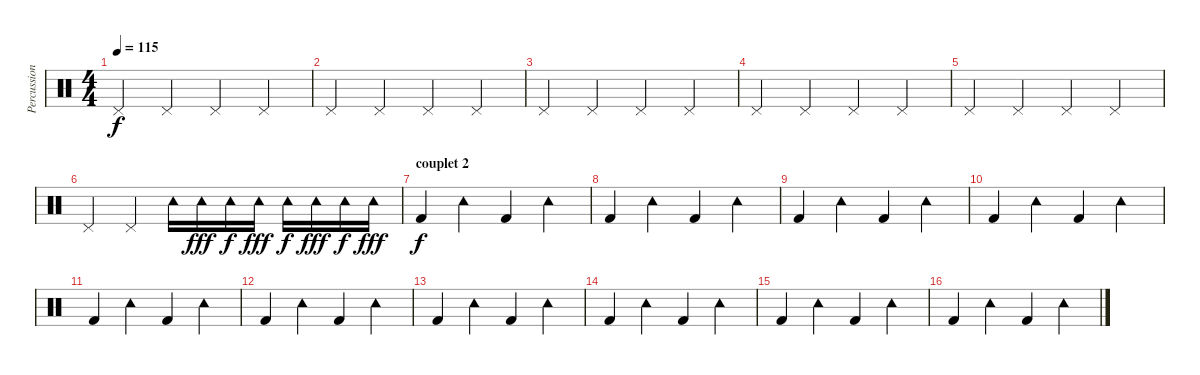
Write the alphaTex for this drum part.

\track ("Percussions" "Percussion") {instrument percussion}
\staff {score}
\articulation defaults
\ts (4 4)
\tempo 115
\clef neutral
\ks c "Pedal Hi-Hat (hit)".4{dy f} "Pedal Hi-Hat (hit)".4 "Pedal Hi-Hat (hit)".4 "Pedal Hi-Hat (hit)".4
|
"Pedal Hi-Hat (hit)".4 "Pedal Hi-Hat (hit)".4 "Pedal Hi-Hat (hit)".4 "Pedal Hi-Hat (hit)".4 |
"Pedal Hi-Hat (hit)".4 "Pedal Hi-Hat (hit)".4 "Pedal Hi-Hat (hit)".4 "Pedal Hi-Hat (hit)".4 |
"Pedal Hi-Hat (hit)".4 "Pedal Hi-Hat (hit)".4 "Pedal Hi-Hat (hit)".4 "Pedal Hi-Hat (hit)".4 |
"Pedal Hi-Hat (hit)".4 "Pedal Hi-Hat (hit)".4 "Pedal Hi-Hat (hit)".4 "Pedal Hi-Hat (hit)".4 |
"Pedal Hi-Hat (hit)".4 "Pedal Hi-Hat (hit)".4 "Tambourine (hit)".16 "Tambourine (hit)".16{dy fff} "Tambourine (hit)".16{dy f} "Tambourine (hit)".16{dy fff} "Tambourine (hit)".16{dy f} "Tambourine (hit)".16{dy fff} "Tambourine (hit)".16{dy f} "Tambourine (hit)".16{dy fff} |
\section ("" "couplet 2")
"Kick (hit) 2".4{dy f} "Tambourine (hit)".4 "Kick (hit) 2".4 "Tambourine (hit)".4 |
"Kick (hit) 2".4 "Tambourine (hit)".4 "Kick (hit) 2".4 "Tambourine (hit)".4 |
"Kick (hit) 2".4 "Tambourine (hit)".4 "Kick (hit) 2".4 "Tambourine (hit)".4 |
"Kick (hit) 2".4 "Tambourine (hit)".4 "Kick (hit) 2".4 "Tambourine (hit)".4 |
"Kick (hit) 2".4 "Tambourine (hit)".4 "Kick (hit) 2".4 "Tambourine (hit)".4 |
"Kick (hit) 2".4 "Tambourine (hit)".4 "Kick (hit) 2".4 "Tambourine (hit)".4 |
"Kick (hit) 2".4 "Tambourine (hit)".4 "Kick (hit) 2".4 "Tambourine (hit)".4 |
"Kick (hit) 2".4 "Tambourine (hit)".4 "Kick (hit) 2".4 "Tambourine (hit)".4 |
"Kick (hit) 2".4 "Tambourine (hit)".4 "Kick (hit) 2".4 "Tambourine (hit)".4 |
"Kick (hit) 2".4 "Tambourine (hit)".4 "Kick (hit) 2".4 "Tambourine (hit)".4
